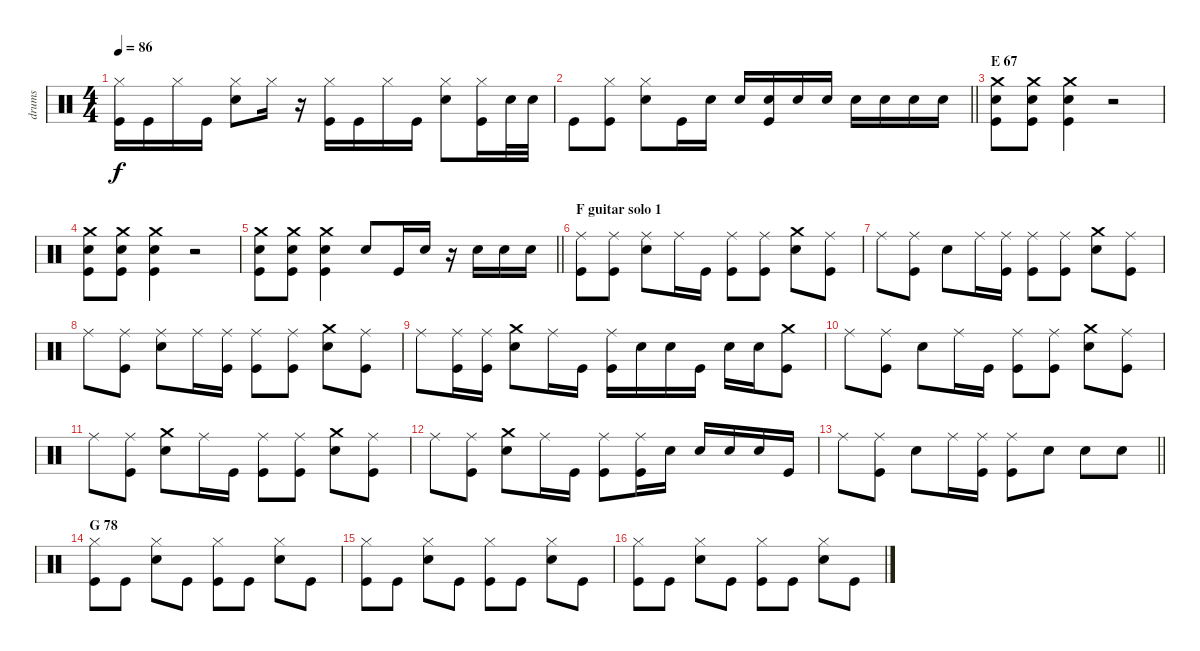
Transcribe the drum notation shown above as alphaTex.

\track ("drums" "drums") {instrument percussion}
\staff {score}
\articulation defaults
\ts (4 4)
\tempo 86
\clef neutral
\ks c
("Hi-Hat (closed)" "Kick (hit)").16{dy f} "Kick (hit)".16 "Hi-Hat (closed)".16 "Kick (hit)".16 ("Snare (hit) 2" "Hi-Hat (closed)").8 "Hi-Hat (closed)".16 r.16 ("Hi-Hat (closed)" "Kick (hit)").16 "Kick (hit)".16 "Hi-Hat (closed)".16 "Kick (hit)".16 ("Snare (hit) 2" "Hi-Hat (closed)").8 ("Hi-Hat (closed)" "Kick (hit)").16 "Snare (hit) 2".32 "Snare (hit) 2".32 |
\barLineRight lightlight "Kick (hit)".8
("Hi-Hat (closed)" "Kick (hit)").8 ("Snare (hit) 2" "Hi-Hat (closed)").8 "Kick (hit)".16 "Snare (hit) 2".16 "Snare (hit) 2".16 ("Snare (hit) 2" "Kick (hit)").16 "Snare (hit) 2".16 "Snare (hit) 2".16 "Snare (hit) 2".16 "Snare (hit) 2".16 "Snare (hit) 2".16 "Snare (hit) 2".16 |
\section ("" "E 67")
("Crash medium (hit)" "Snare (hit) 2" "Kick (hit)").8 ("Crash medium (hit)" "Snare (hit) 2" "Kick (hit)").8 ("Crash medium (hit)" "Snare (hit) 2" "Kick (hit)").4 r.2 |
("Crash medium (hit)" "Snare (hit) 2" "Kick (hit)").8 ("Crash medium (hit)" "Snare (hit) 2" "Kick (hit)").8 ("Crash medium (hit)" "Snare (hit) 2" "Kick (hit)").4 r.2 |
\barLineRight lightlight
("Crash medium (hit)" "Snare (hit) 2" "Kick (hit)").8 ("Crash medium (hit)" "Snare (hit) 2" "Kick (hit)").8 ("Crash medium (hit)" "Snare (hit) 2" "Kick (hit)").4 "Snare (hit) 2".8 "Kick (hit)".16 "Snare (hit) 2".16 r.16 "Snare (hit) 2".16 "Snare (hit) 2".16 "Snare (hit) 2".16 |
\section ("" "F guitar solo 1")
("Ride (middle)" "Kick (hit)").8 ("Ride (middle)" "Kick (hit)").8 ("Ride (middle)" "Snare (hit) 2").8 "Ride (middle)".16 "Kick (hit)".16 ("Ride (middle)" "Kick (hit)").8 ("Ride (middle)" "Kick (hit)").8 ("Crash medium (hit)" "Snare (hit) 2").8 ("Ride (middle)" "Kick (hit)").8 |
"Ride (middle)".8 ("Ride (middle)" "Kick (hit)").8 "Snare (hit) 2".8 "Ride (middle)".16 ("Ride (middle)" "Kick (hit)").16 ("Ride (middle)" "Kick (hit)").8 ("Ride (middle)" "Kick (hit)").8 ("Crash medium (hit)" "Snare (hit) 2").8 ("Ride (middle)" "Kick (hit)").8 |
"Ride (middle)".8 ("Ride (middle)" "Kick (hit)").8 ("Ride (middle)" "Snare (hit) 2").8 "Ride (middle)".16 ("Ride (middle)" "Kick (hit)").16 ("Ride (middle)" "Kick (hit)").8 ("Ride (middle)" "Kick (hit)").8 ("Crash medium (hit)" "Snare (hit) 2").8 ("Ride (middle)" "Kick (hit)").8 |
"Ride (middle)".8 ("Ride (middle)" "Kick (hit)").16 ("Ride (middle)" "Kick (hit)").16 ("Crash medium (hit)" "Snare (hit) 2").8 "Ride (middle)".16 "Kick (hit)".16 ("Ride (middle)" "Kick (hit)").16 "Snare (hit) 2".16 "Snare (hit) 2".16 "Kick (hit)".16 "Snare (hit) 2".16 "Snare (hit) 2".16 ("Crash medium (hit)" "Kick (hit)").8 |
"Ride (middle)".8 ("Ride (middle)" "Kick (hit)").8 "Snare (hit) 2".8 "Ride (middle)".16 "Kick (hit)".16 ("Ride (middle)" "Kick (hit)").8 ("Ride (middle)" "Kick (hit)").8 ("Crash medium (hit)" "Snare (hit) 2").8 ("Ride (middle)" "Kick (hit)").8 |
"Ride (middle)".8 ("Ride (middle)" "Kick (hit)").8 ("Crash medium (hit)" "Snare (hit) 2").8 "Ride (middle)".16 "Kick (hit)".16 ("Ride (middle)" "Kick (hit)").8 ("Ride (middle)" "Kick (hit)").8 ("Crash medium (hit)" "Snare (hit) 2").8 ("Ride (middle)" "Kick (hit)").8 |
"Ride (middle)".8 ("Ride (middle)" "Kick (hit)").8 ("Crash medium (hit)" "Snare (hit) 2").8 "Ride (middle)".16 "Kick (hit)".16 ("Ride (middle)" "Kick (hit)").8 ("Ride (middle)" "Kick (hit)").16 "Snare (hit) 2".16 "Snare (hit) 2".16 "Snare (hit) 2".16 "Snare (hit) 2".16 "Kick (hit)".16 |
\barLineRight lightlight "Ride (middle)".8
("Ride (middle)" "Kick (hit)").8 "Snare (hit) 2".8 "Ride (middle)".16 ("Ride (middle)" "Kick (hit)").16 ("Ride (middle)" "Kick (hit)").8 "Snare (hit) 2".8 "Snare (hit) 2".8 "Snare (hit) 2".8 |
\section ("" "G 78")
("Hi-Hat (closed)" "Kick (hit)").8 "Kick (hit)".8 ("Snare (hit) 2" "Hi-Hat (closed)").8 "Kick (hit)".8 ("Hi-Hat (closed)" "Kick (hit)").8 "Kick (hit)".8 ("Snare (hit) 2" "Hi-Hat (closed)").8 "Kick (hit)".8 |
("Hi-Hat (closed)" "Kick (hit)").8 "Kick (hit)".8 ("Snare (hit) 2" "Hi-Hat (closed)").8 "Kick (hit)".8 ("Hi-Hat (closed)" "Kick (hit)").8 "Kick (hit)".8 ("Snare (hit) 2" "Hi-Hat (closed)").8 "Kick (hit)".8 |
("Hi-Hat (closed)" "Kick (hit)").8 "Kick (hit)".8 ("Snare (hit) 2" "Hi-Hat (closed)").8 "Kick (hit)".8 ("Hi-Hat (closed)" "Kick (hit)").8 "Kick (hit)".8 ("Snare (hit) 2" "Hi-Hat (closed)").8 "Kick (hit)".8
